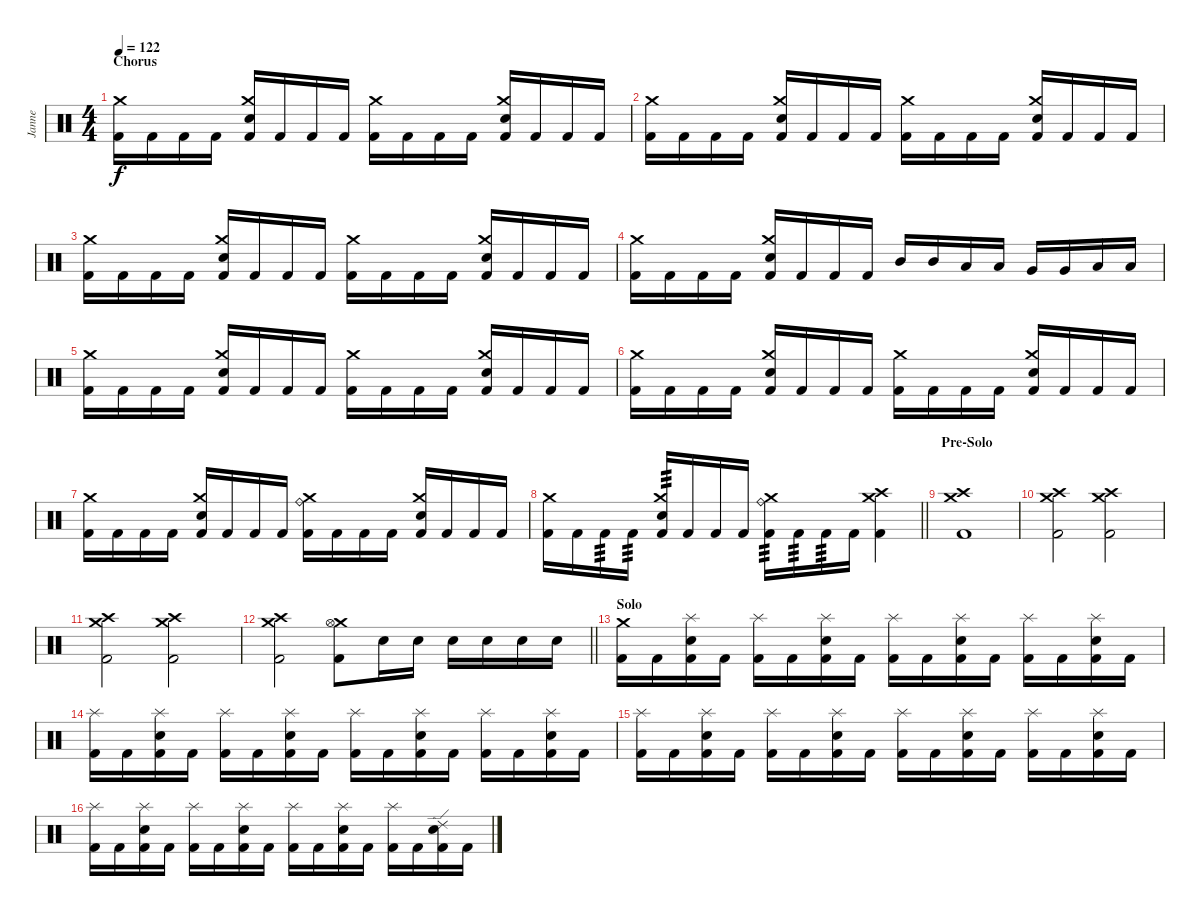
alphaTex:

\track ("Janne" "Janne") {instrument percussion}
\staff {score}
\articulation defaults
\ts (4 4)
\section ("" "Chorus")
\tempo 122
\clef neutral
\ks c
("Kick (hit) 2" "Crash medium (hit)").16{dy f} "Kick (hit) 2".16 "Kick (hit) 2".16 "Kick (hit) 2".16 ("Kick (hit) 2" "Snare (hit) 2" "Crash medium (hit)").16 "Kick (hit) 2".16 "Kick (hit) 2".16 "Kick (hit) 2".16 ("Kick (hit) 2" "Crash medium (hit)").16 "Kick (hit) 2".16 "Kick (hit) 2".16 "Kick (hit) 2".16 ("Kick (hit) 2" "Snare (hit) 2" "Crash medium (hit)").16 "Kick (hit) 2".16 "Kick (hit) 2".16 "Kick (hit) 2".16 |
("Kick (hit) 2" "Crash medium (hit)").16 "Kick (hit) 2".16 "Kick (hit) 2".16 "Kick (hit) 2".16 ("Kick (hit) 2" "Snare (hit) 2" "Crash medium (hit)").16 "Kick (hit) 2".16 "Kick (hit) 2".16 "Kick (hit) 2".16 ("Kick (hit) 2" "Crash medium (hit)").16 "Kick (hit) 2".16 "Kick (hit) 2".16 "Kick (hit) 2".16 ("Kick (hit) 2" "Snare (hit) 2" "Crash medium (hit)").16 "Kick (hit) 2".16 "Kick (hit) 2".16 "Kick (hit) 2".16 |
("Kick (hit) 2" "Crash medium (hit)").16 "Kick (hit) 2".16 "Kick (hit) 2".16 "Kick (hit) 2".16 ("Kick (hit) 2" "Snare (hit) 2" "Crash medium (hit)").16 "Kick (hit) 2".16 "Kick (hit) 2".16 "Kick (hit) 2".16 ("Kick (hit) 2" "Crash medium (hit)").16 "Kick (hit) 2".16 "Kick (hit) 2".16 "Kick (hit) 2".16 ("Kick (hit) 2" "Snare (hit) 2" "Crash medium (hit)").16 "Kick (hit) 2".16 "Kick (hit) 2".16 "Kick (hit) 2".16 |
("Kick (hit) 2" "Crash medium (hit)").16 "Kick (hit) 2".16 "Kick (hit) 2".16 "Kick (hit) 2".16 ("Kick (hit) 2" "Snare (hit) 2" "Crash medium (hit)").16 "Kick (hit) 2".16 "Kick (hit) 2".16 "Kick (hit) 2".16 "Mid Tom (hit)".16 "Mid Tom (hit)".16 "Low Tom (hit)".16 "Low Tom (hit)".16 "Very Low Tom (hit)".16 "Very Low Tom (hit)".16 "Low Floor Tom (hit)".16 "Low Floor Tom (hit)".16 |
("Kick (hit) 2" "Crash medium (hit)").16 "Kick (hit) 2".16 "Kick (hit) 2".16 "Kick (hit) 2".16 ("Kick (hit) 2" "Snare (hit) 2" "Crash medium (hit)").16 "Kick (hit) 2".16 "Kick (hit) 2".16 "Kick (hit) 2".16 ("Kick (hit) 2" "Crash medium (hit)").16 "Kick (hit) 2".16 "Kick (hit) 2".16 "Kick (hit) 2".16 ("Kick (hit) 2" "Snare (hit) 2" "Crash medium (hit)").16 "Kick (hit) 2".16 "Kick (hit) 2".16 "Kick (hit) 2".16 |
("Kick (hit) 2" "Crash medium (hit)").16 "Kick (hit) 2".16 "Kick (hit) 2".16 "Kick (hit) 2".16 ("Kick (hit) 2" "Snare (hit) 2" "Crash medium (hit)").16 "Kick (hit) 2".16 "Kick (hit) 2".16 "Kick (hit) 2".16 ("Kick (hit) 2" "Crash medium (hit)").16 "Kick (hit) 2".16 "Kick (hit) 2".16 "Kick (hit) 2".16 ("Kick (hit) 2" "Snare (hit) 2" "Crash medium (hit)").16 "Kick (hit) 2".16 "Kick (hit) 2".16 "Kick (hit) 2".16 |
("Kick (hit) 2" "Crash medium (hit)").16 "Kick (hit) 2".16 "Kick (hit) 2".16 "Kick (hit) 2".16 ("Kick (hit) 2" "Snare (hit) 2" "Crash medium (hit)").16 "Kick (hit) 2".16 "Kick (hit) 2".16 "Kick (hit) 2".16 ("Kick (hit) 2" "Crash medium (hit)" "Ride (bell)").16 "Kick (hit) 2".16 "Kick (hit) 2".16 "Kick (hit) 2".16 ("Kick (hit) 2" "Snare (hit) 2" "Crash medium (hit)").16 "Kick (hit) 2".16 "Kick (hit) 2".16 "Kick (hit) 2".16 |
\barLineRight lightlight
("Kick (hit) 2" "Crash medium (hit)").16 "Kick (hit) 2".16 "Kick (hit) 2".16{tp 3} "Kick (hit) 2".16{tp 3} ("Kick (hit) 2" "Snare (hit) 2" "Crash medium (hit)").16{tp 3} "Kick (hit) 2".16 "Kick (hit) 2".16 "Kick (hit) 2".16 ("Kick (hit) 2" "Crash medium (hit)" "Ride (bell)").16{tp 3} "Kick (hit) 2".16{tp 3} "Kick (hit) 2".16{tp 3} "Kick (hit) 2".16 ("Kick (hit) 2" "Crash medium (hit)" "Crash high (hit)").4 |
\section ("" "Pre-Solo")
("Kick (hit) 2" "Crash medium (hit)" "Crash high (hit)").1 |
("Kick (hit) 2" "Crash medium (hit)" "Crash high (hit)").2 ("Kick (hit) 2" "Crash medium (hit)" "Crash high (hit)").2 |
("Kick (hit) 2" "Crash medium (hit)" "Crash high (hit)").2 ("Kick (hit) 2" "Crash medium (hit)" "Crash high (hit)").2 |
\barLineRight lightlight
("Kick (hit) 2" "Crash medium (hit)" "Crash high (hit)").2 ("Kick (hit) 2" "Crash medium (hit)" "Hi-Hat (open)").8 "Snare (hit) 2".16 "Snare (hit) 2".16 "Snare (hit) 2".16 "Snare (hit) 2".16 "Snare (hit) 2".16 "Snare (hit) 2".16 |
\section ("" "Solo")
("Kick (hit) 2" "Crash medium (hit)").16 "Kick (hit) 2".16 ("Kick (hit) 2" "Snare (hit) 2" "Splash (hit)").16 "Kick (hit) 2".16 ("Kick (hit) 2" "Splash (hit)").16 "Kick (hit) 2".16 ("Kick (hit) 2" "Snare (hit) 2" "Splash (hit)").16 "Kick (hit) 2".16 ("Kick (hit) 2" "Splash (hit)").16 "Kick (hit) 2".16 ("Kick (hit) 2" "Snare (hit) 2" "Splash (hit)").16 "Kick (hit) 2".16 ("Kick (hit) 2" "Splash (hit)").16 "Kick (hit) 2".16 ("Kick (hit) 2" "Snare (hit) 2" "Splash (hit)").16 "Kick (hit) 2".16 |
("Kick (hit) 2" "Splash (hit)").16 "Kick (hit) 2".16 ("Kick (hit) 2" "Snare (hit) 2" "Splash (hit)").16 "Kick (hit) 2".16 ("Kick (hit) 2" "Splash (hit)").16 "Kick (hit) 2".16 ("Kick (hit) 2" "Snare (hit) 2" "Splash (hit)").16 "Kick (hit) 2".16 ("Kick (hit) 2" "Splash (hit)").16 "Kick (hit) 2".16 ("Kick (hit) 2" "Snare (hit) 2" "Splash (hit)").16 "Kick (hit) 2".16 ("Kick (hit) 2" "Splash (hit)").16 "Kick (hit) 2".16 ("Kick (hit) 2" "Snare (hit) 2" "Splash (hit)").16 "Kick (hit) 2".16 |
("Kick (hit) 2" "Splash (hit)").16 "Kick (hit) 2".16 ("Kick (hit) 2" "Snare (hit) 2" "Splash (hit)").16 "Kick (hit) 2".16 ("Kick (hit) 2" "Splash (hit)").16 "Kick (hit) 2".16 ("Kick (hit) 2" "Snare (hit) 2" "Splash (hit)").16 "Kick (hit) 2".16 ("Kick (hit) 2" "Splash (hit)").16 "Kick (hit) 2".16 ("Kick (hit) 2" "Snare (hit) 2" "Splash (hit)").16 "Kick (hit) 2".16 ("Kick (hit) 2" "Splash (hit)").16 "Kick (hit) 2".16 ("Kick (hit) 2" "Snare (hit) 2" "Splash (hit)").16 "Kick (hit) 2".16 |
("Kick (hit) 2" "Splash (hit)").16 "Kick (hit) 2".16 ("Kick (hit) 2" "Snare (hit) 2" "Splash (hit)").16 "Kick (hit) 2".16 ("Kick (hit) 2" "Splash (hit)").16 "Kick (hit) 2".16 ("Kick (hit) 2" "Snare (hit) 2" "Splash (hit)").16 "Kick (hit) 2".16 ("Kick (hit) 2" "Splash (hit)").16 "Kick (hit) 2".16 ("Kick (hit) 2" "Snare (hit) 2" "Splash (hit)").16 "Kick (hit) 2".16 ("Kick (hit) 2" "Splash (hit)").16 "Kick (hit) 2".16 ("Kick (hit) 2" "Snare (hit) 2" "Ride (edge) 2").16 "Kick (hit) 2".16
